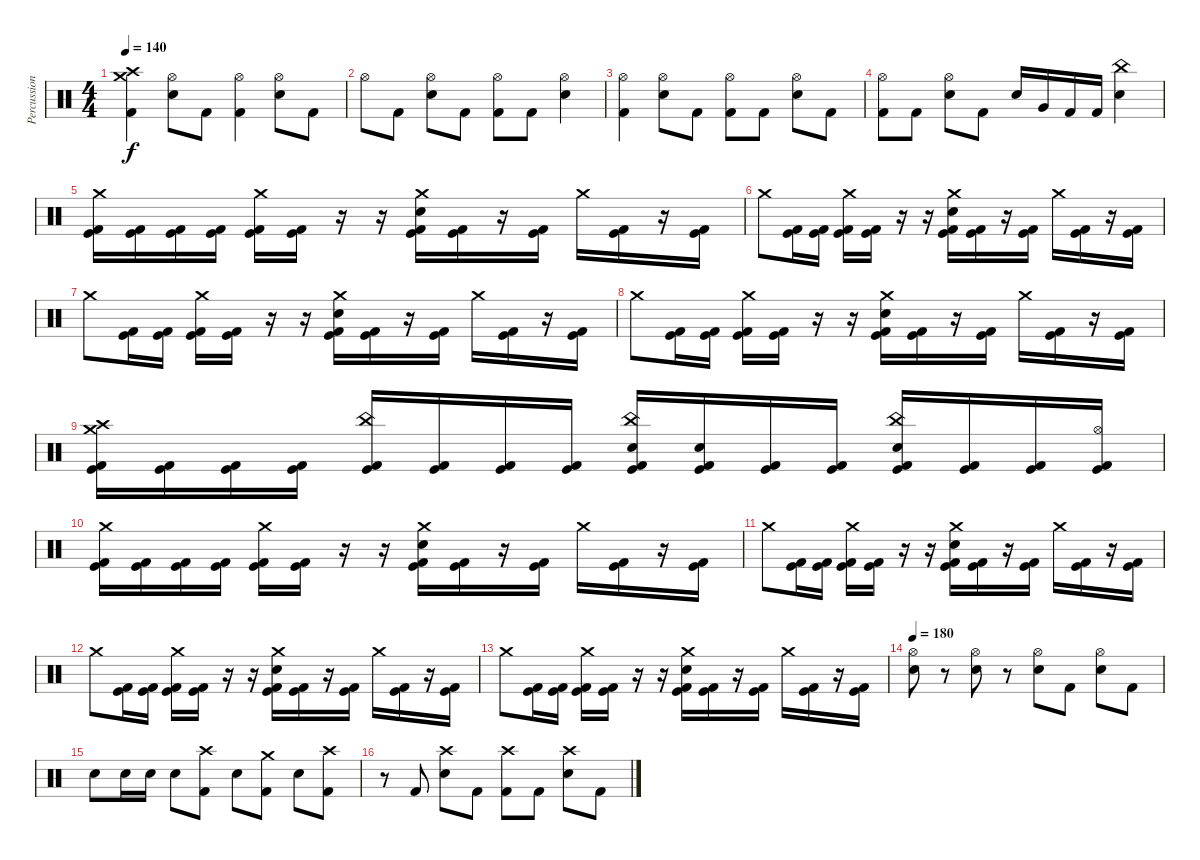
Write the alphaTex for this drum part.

\track ("Percussion" "Percussion") {instrument percussion}
\staff {score}
\articulation defaults
\ts (4 4)
\tempo 140
\clef neutral
\ks c
("Crash medium (hit)" "Crash high (hit)" "Kick (hit) 2").4{dy f} ("Hi-Hat (open)" "Electric Snare (hit)").8 "Kick (hit) 2".8 ("Hi-Hat (open)" "Kick (hit) 2").4 ("Hi-Hat (open)" "Electric Snare (hit)").8 "Kick (hit) 2".8 |
"Hi-Hat (open)".8 "Kick (hit) 2".8 ("Hi-Hat (open)" "Electric Snare (hit)").8 "Kick (hit) 2".8 ("Hi-Hat (open)" "Kick (hit) 2").8 "Kick (hit) 2".8 ("Hi-Hat (open)" "Electric Snare (hit)").4 |
("Hi-Hat (open)" "Kick (hit) 2").4 ("Hi-Hat (open)" "Electric Snare (hit)").8 "Kick (hit) 2".8 ("Hi-Hat (open)" "Kick (hit) 2").8 "Kick (hit) 2".8 ("Hi-Hat (open)" "Electric Snare (hit)").8 "Kick (hit) 2".8 |
("Hi-Hat (open)" "Kick (hit) 2").8 "Kick (hit) 2".8 ("Hi-Hat (open)" "Electric Snare (hit)").8 "Kick (hit) 2".8 "Electric Snare (hit)".16 "Very Low Tom (hit)".16 "Kick (hit) 2".16 "Kick (hit) 2".16 ("China (hit)" "Electric Snare (hit)").4 |
("Crash medium (hit)" "Kick (hit)" "Kick (hit) 2").16 ("Kick (hit)" "Kick (hit) 2").16 ("Kick (hit)" "Kick (hit) 2").16 ("Kick (hit)" "Kick (hit) 2").16 ("Crash medium (hit)" "Kick (hit)" "Kick (hit) 2").16 ("Kick (hit)" "Kick (hit) 2").16 r.16 r.16 ("Crash medium (hit)" "Electric Snare (hit)" "Kick (hit)" "Kick (hit) 2").16 ("Kick (hit)" "Kick (hit) 2").16 r.16 ("Kick (hit)" "Kick (hit) 2").16 "Crash medium (hit)".16 ("Kick (hit)" "Kick (hit) 2").16 r.16 ("Kick (hit)" "Kick (hit) 2").16 |
"Crash medium (hit)".8 ("Kick (hit)" "Kick (hit) 2").16 ("Kick (hit)" "Kick (hit) 2").16 ("Crash medium (hit)" "Kick (hit)" "Kick (hit) 2").16 ("Kick (hit)" "Kick (hit) 2").16 r.16 r.16 ("Crash medium (hit)" "Electric Snare (hit)" "Kick (hit)" "Kick (hit) 2").16 ("Kick (hit)" "Kick (hit) 2").16 r.16 ("Kick (hit)" "Kick (hit) 2").16 "Crash medium (hit)".16 ("Kick (hit)" "Kick (hit) 2").16 r.16 ("Kick (hit)" "Kick (hit) 2").16 |
"Crash medium (hit)".8 ("Kick (hit)" "Kick (hit) 2").16 ("Kick (hit)" "Kick (hit) 2").16 ("Crash medium (hit)" "Kick (hit)" "Kick (hit) 2").16 ("Kick (hit)" "Kick (hit) 2").16 r.16 r.16 ("Crash medium (hit)" "Electric Snare (hit)" "Kick (hit)" "Kick (hit) 2").16 ("Kick (hit)" "Kick (hit) 2").16 r.16 ("Kick (hit)" "Kick (hit) 2").16 "Crash medium (hit)".16 ("Kick (hit)" "Kick (hit) 2").16 r.16 ("Kick (hit)" "Kick (hit) 2").16 |
"Crash medium (hit)".8 ("Kick (hit)" "Kick (hit) 2").16 ("Kick (hit)" "Kick (hit) 2").16 ("Crash medium (hit)" "Kick (hit)" "Kick (hit) 2").16 ("Kick (hit)" "Kick (hit) 2").16 r.16 r.16 ("Crash medium (hit)" "Electric Snare (hit)" "Kick (hit)" "Kick (hit) 2").16 ("Kick (hit)" "Kick (hit) 2").16 r.16 ("Kick (hit)" "Kick (hit) 2").16 "Crash medium (hit)".16 ("Kick (hit)" "Kick (hit) 2").16 r.16 ("Kick (hit)" "Kick (hit) 2").16 |
("Crash medium (hit)" "Crash high (hit)" "Kick (hit)" "Kick (hit) 2").16 ("Kick (hit)" "Kick (hit) 2").16 ("Kick (hit)" "Kick (hit) 2").16 ("Kick (hit)" "Kick (hit) 2").16 ("China (hit)" "Kick (hit)" "Kick (hit) 2").16 ("Kick (hit)" "Kick (hit) 2").16 ("Kick (hit)" "Kick (hit) 2").16 ("Kick (hit)" "Kick (hit) 2").16 ("China (hit)" "Electric Snare (hit)" "Kick (hit)" "Kick (hit) 2").16 ("Electric Snare (hit)" "Kick (hit)" "Kick (hit) 2").16 ("Kick (hit)" "Kick (hit) 2").16 ("Kick (hit)" "Kick (hit) 2").16 ("China (hit)" "Electric Snare (hit)" "Kick (hit)" "Kick (hit) 2").16 ("Kick (hit)" "Kick (hit) 2").16 ("Kick (hit)" "Kick (hit) 2").16 ("Hi-Hat (open)" "Kick (hit)" "Kick (hit) 2").16 |
("Crash medium (hit)" "Kick (hit)" "Kick (hit) 2").16 ("Kick (hit)" "Kick (hit) 2").16 ("Kick (hit)" "Kick (hit) 2").16 ("Kick (hit)" "Kick (hit) 2").16 ("Crash medium (hit)" "Kick (hit)" "Kick (hit) 2").16 ("Kick (hit)" "Kick (hit) 2").16 r.16 r.16 ("Crash medium (hit)" "Electric Snare (hit)" "Kick (hit)" "Kick (hit) 2").16 ("Kick (hit)" "Kick (hit) 2").16 r.16 ("Kick (hit)" "Kick (hit) 2").16 "Crash medium (hit)".16 ("Kick (hit)" "Kick (hit) 2").16 r.16 ("Kick (hit)" "Kick (hit) 2").16 |
"Crash medium (hit)".8 ("Kick (hit)" "Kick (hit) 2").16 ("Kick (hit)" "Kick (hit) 2").16 ("Crash medium (hit)" "Kick (hit)" "Kick (hit) 2").16 ("Kick (hit)" "Kick (hit) 2").16 r.16 r.16 ("Crash medium (hit)" "Electric Snare (hit)" "Kick (hit)" "Kick (hit) 2").16 ("Kick (hit)" "Kick (hit) 2").16 r.16 ("Kick (hit)" "Kick (hit) 2").16 "Crash medium (hit)".16 ("Kick (hit)" "Kick (hit) 2").16 r.16 ("Kick (hit)" "Kick (hit) 2").16 |
"Crash medium (hit)".8 ("Kick (hit)" "Kick (hit) 2").16 ("Kick (hit)" "Kick (hit) 2").16 ("Crash medium (hit)" "Kick (hit)" "Kick (hit) 2").16 ("Kick (hit)" "Kick (hit) 2").16 r.16 r.16 ("Crash medium (hit)" "Electric Snare (hit)" "Kick (hit)" "Kick (hit) 2").16 ("Kick (hit)" "Kick (hit) 2").16 r.16 ("Kick (hit)" "Kick (hit) 2").16 "Crash medium (hit)".16 ("Kick (hit)" "Kick (hit) 2").16 r.16 ("Kick (hit)" "Kick (hit) 2").16 |
"Crash medium (hit)".8 ("Kick (hit)" "Kick (hit) 2").16 ("Kick (hit)" "Kick (hit) 2").16 ("Crash medium (hit)" "Kick (hit)" "Kick (hit) 2").16 ("Kick (hit)" "Kick (hit) 2").16 r.16 r.16 ("Crash medium (hit)" "Electric Snare (hit)" "Kick (hit)" "Kick (hit) 2").16 ("Kick (hit)" "Kick (hit) 2").16 r.16 ("Kick (hit)" "Kick (hit) 2").16 "Crash medium (hit)".16 ("Kick (hit)" "Kick (hit) 2").16 r.16 ("Kick (hit)" "Kick (hit) 2").16 |
\tempo 180
("Hi-Hat (open)" "Electric Snare (hit)").8 r.8 ("Hi-Hat (open)" "Electric Snare (hit)").8 r.8 ("Hi-Hat (open)" "Electric Snare (hit)").8 "Kick (hit) 2".8 ("Hi-Hat (open)" "Electric Snare (hit)").8 "Kick (hit) 2".8 |
"Electric Snare (hit)".8 "Electric Snare (hit)".16 "Electric Snare (hit)".16 "Electric Snare (hit)".8 ("Crash high (hit)" "Kick (hit) 2").8 "Electric Snare (hit)".8 ("Crash medium (hit)" "Kick (hit) 2").8 "Electric Snare (hit)".8 ("Crash high (hit)" "Kick (hit) 2").8 |
r.8 "Kick (hit) 2".8 ("Crash high (hit)" "Electric Snare (hit)").8 "Kick (hit) 2".8 ("Crash high (hit)" "Kick (hit) 2").8 "Kick (hit) 2".8 ("Crash high (hit)" "Electric Snare (hit)").8 "Kick (hit) 2".8
